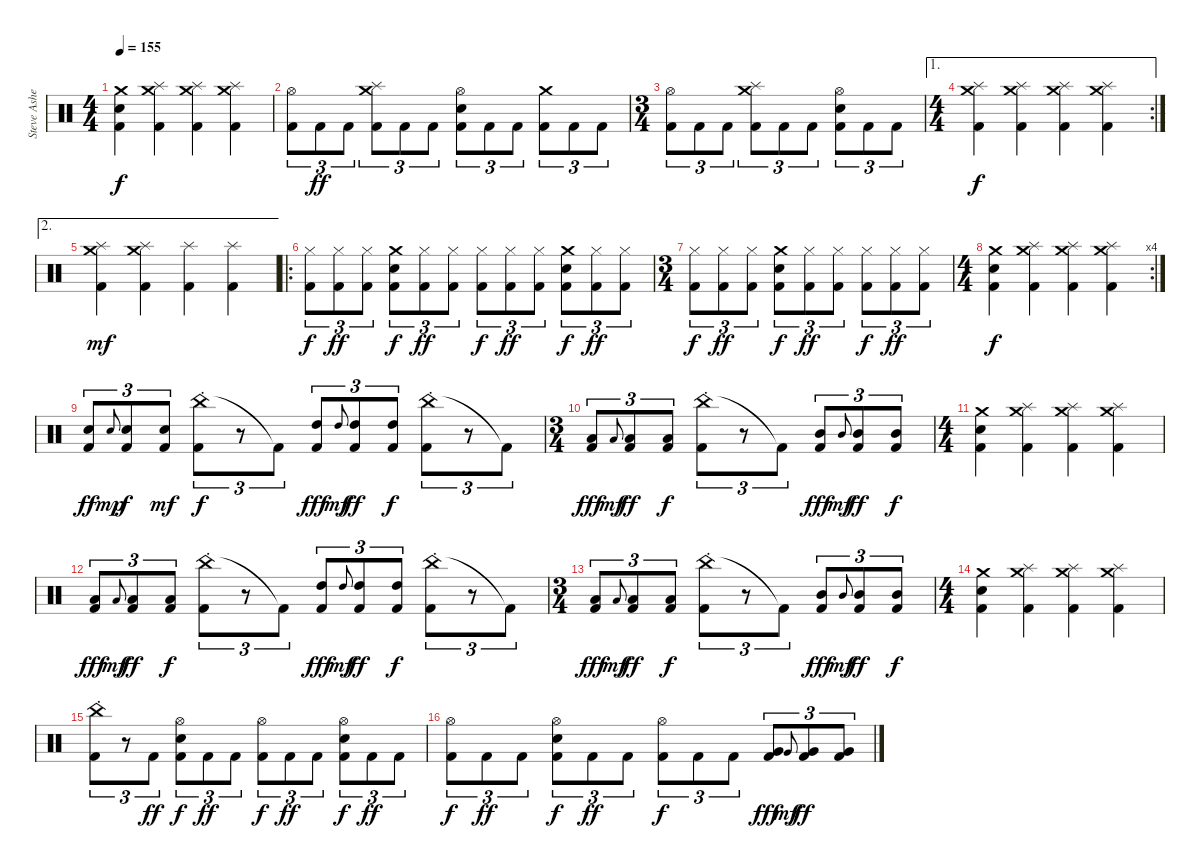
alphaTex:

\track ("Steve Asheim " "Steve Ashe") {instrument percussion}
\staff {score}
\articulation defaults
\ts (4 4)
\tempo 155
\clef neutral
\ks c
("Crash medium (hit)" "Electric Snare (hit)" "Kick (hit) 2").4{dy f} ("Crash medium (hit)" "Splash (hit)" "Kick (hit) 2").4 ("Crash medium (hit)" "Splash (hit)" "Kick (hit) 2").4 ("Crash medium (hit)" "Splash (hit)" "Kick (hit) 2").4 |
("Hi-Hat (open)" "Kick (hit) 2").8{tu (3 2)} "Kick (hit) 2".8{tu (3 2) dy ff} "Kick (hit) 2".8{tu (3 2)} ("Splash (hit)" "Crash medium (hit)" "Kick (hit) 2").8{tu (3 2)} "Kick (hit) 2".8{tu (3 2)} "Kick (hit) 2".8{tu (3 2)} ("Electric Snare (hit)" "Hi-Hat (open)" "Kick (hit) 2").8{tu (3 2)} "Kick (hit) 2".8{tu (3 2)} "Kick (hit) 2".8{tu (3 2)} ("Crash medium (hit)" "Kick (hit) 2").8{tu (3 2)} "Kick (hit) 2".8{tu (3 2)} "Kick (hit) 2".8{tu (3 2)} |
\ts (3 4)
("Hi-Hat (open)" "Kick (hit) 2").8{tu (3 2)} "Kick (hit) 2".8{tu (3 2)} "Kick (hit) 2".8{tu (3 2)} ("Splash (hit)" "Crash medium (hit)" "Kick (hit) 2").8{tu (3 2)} "Kick (hit) 2".8{tu (3 2)} "Kick (hit) 2".8{tu (3 2)} ("Electric Snare (hit)" "Hi-Hat (open)" "Kick (hit) 2").8{tu (3 2)} "Kick (hit) 2".8{tu (3 2)} "Kick (hit) 2".8{tu (3 2)} |
\ae 1
\rc 2
\ts (4 4)
("Crash medium (hit)" "Splash (hit)" "Kick (hit) 2").4{dy f} ("Crash medium (hit)" "Splash (hit)" "Kick (hit) 2").4 ("Crash medium (hit)" "Splash (hit)" "Kick (hit) 2").4 ("Crash medium (hit)" "Splash (hit)" "Kick (hit) 2").4 |
\ae 2
("Crash medium (hit)" "Splash (hit)" "Kick (hit) 2").4{dy mf} ("Crash medium (hit)" "Splash (hit)" "Kick (hit) 2").4 ("Splash (hit)" "Kick (hit) 2").4 ("Splash (hit)" "Kick (hit) 2").4 |
\ro
("Hi-Hat (closed)" "Kick (hit) 2").8{tu (3 2) dy f} ("Hi-Hat (closed)" "Kick (hit) 2").8{tu (3 2) dy ff} ("Hi-Hat (closed)" "Kick (hit) 2").8{tu (3 2)} ("Electric Snare (hit)" "Crash medium (hit)" "Kick (hit) 2").8{tu (3 2) dy f} ("Hi-Hat (closed)" "Kick (hit) 2").8{tu (3 2) dy ff} ("Hi-Hat (closed)" "Kick (hit) 2").8{tu (3 2)} ("Hi-Hat (closed)" "Kick (hit) 2").8{tu (3 2) dy f} ("Hi-Hat (closed)" "Kick (hit) 2").8{tu (3 2) dy ff} ("Hi-Hat (closed)" "Kick (hit) 2").8{tu (3 2)} ("Electric Snare (hit)" "Crash medium (hit)" "Kick (hit) 2").8{tu (3 2) dy f} ("Hi-Hat (closed)" "Kick (hit) 2").8{tu (3 2) dy ff} ("Hi-Hat (closed)" "Kick (hit) 2").8{tu (3 2)} |
\ts (3 4)
("Hi-Hat (closed)" "Kick (hit) 2").8{tu (3 2) dy f} ("Hi-Hat (closed)" "Kick (hit) 2").8{tu (3 2) dy ff} ("Hi-Hat (closed)" "Kick (hit) 2").8{tu (3 2)} ("Electric Snare (hit)" "Crash medium (hit)" "Kick (hit) 2").8{tu (3 2) dy f} ("Hi-Hat (closed)" "Kick (hit) 2").8{tu (3 2) dy ff} ("Hi-Hat (closed)" "Kick (hit) 2").8{tu (3 2)} ("Hi-Hat (closed)" "Kick (hit) 2").8{tu (3 2) dy f} ("Hi-Hat (closed)" "Kick (hit) 2").8{tu (3 2) dy ff} ("Hi-Hat (closed)" "Kick (hit) 2").8{tu (3 2)} |
\rc 4
\ts (4 4)
("Crash medium (hit)" "Electric Snare (hit)" "Kick (hit) 2").4{dy f} ("Crash medium (hit)" "Splash (hit)" "Kick (hit) 2").4 ("Crash medium (hit)" "Splash (hit)" "Kick (hit) 2").4 ("Crash medium (hit)" "Splash (hit)" "Kick (hit) 2").4 |
("Electric Snare (hit)" "Kick (hit) 2").8{tu (3 2) dy ff} "Electric Snare (hit)".8{gr onbeat dy mp} ("Electric Snare (hit)" "Kick (hit) 2").8{tu (3 2) dy f} ("Electric Snare (hit)" "Kick (hit) 2").8{tu (3 2) dy mf} ("China (hit)"{st} "Kick (hit) 2").8{tu (3 2) dy f} r.8{tu (3 2)} "Kick (hit) 2"{t}.8{tu (3 2)} ("High Tom (hit)" "Kick (hit) 2").8{tu (3 2) dy fff} "High Tom (hit)".8{gr onbeat dy mf} ("High Tom (hit)" "Kick (hit) 2").8{tu (3 2) dy ff} ("High Tom (hit)" "Kick (hit) 2").8{tu (3 2) dy f} ("China (hit)"{st} "Kick (hit) 2").8{tu (3 2)} r.8{tu (3 2)} "Kick (hit) 2"{t}.8{tu (3 2)} |
\ts (3 4)
("Low Floor Tom (hit)" "Kick (hit) 2").8{tu (3 2) dy fff} "Low Floor Tom (hit)".8{gr onbeat dy mf} ("Low Floor Tom (hit)" "Kick (hit) 2").8{tu (3 2) dy ff} ("Low Floor Tom (hit)" "Kick (hit) 2").8{tu (3 2) dy f} ("China (hit)"{st} "Kick (hit) 2").8{tu (3 2)} r.8{tu (3 2)} "Kick (hit) 2"{t}.8{tu (3 2)} ("Mid Tom (hit)" "Kick (hit) 2").8{tu (3 2) dy fff} "Mid Tom (hit)".8{gr onbeat dy mf} ("Mid Tom (hit)" "Kick (hit) 2").8{tu (3 2) dy ff} ("Mid Tom (hit)" "Kick (hit) 2").8{tu (3 2) dy f} |
\ts (4 4)
("Crash medium (hit)" "Electric Snare (hit)" "Kick (hit) 2").4 ("Crash medium (hit)" "Splash (hit)" "Kick (hit) 2").4 ("Crash medium (hit)" "Splash (hit)" "Kick (hit) 2").4 ("Crash medium (hit)" "Splash (hit)" "Kick (hit) 2").4 |
("Low Floor Tom (hit)" "Kick (hit) 2").8{tu (3 2) dy fff} "Low Floor Tom (hit)".8{gr onbeat dy mf} ("Low Floor Tom (hit)" "Kick (hit) 2").8{tu (3 2) dy ff} ("Low Floor Tom (hit)" "Kick (hit) 2").8{tu (3 2) dy f} ("China (hit)"{st} "Kick (hit) 2").8{tu (3 2)} r.8{tu (3 2)} "Kick (hit) 2"{t}.8{tu (3 2)} ("High Tom (hit)" "Kick (hit) 2").8{tu (3 2) dy fff} "High Tom (hit)".8{gr onbeat dy mf} ("High Tom (hit)" "Kick (hit) 2").8{tu (3 2) dy ff} ("High Tom (hit)" "Kick (hit) 2").8{tu (3 2) dy f} ("China (hit)"{st} "Kick (hit) 2").8{tu (3 2)} r.8{tu (3 2)} "Kick (hit) 2"{t}.8{tu (3 2)} |
\ts (3 4)
("Low Floor Tom (hit)" "Kick (hit) 2").8{tu (3 2) dy fff} "Low Floor Tom (hit)".8{gr onbeat dy mf} ("Low Floor Tom (hit)" "Kick (hit) 2").8{tu (3 2) dy ff} ("Low Floor Tom (hit)" "Kick (hit) 2").8{tu (3 2) dy f} ("China (hit)"{st} "Kick (hit) 2").8{tu (3 2)} r.8{tu (3 2)} "Kick (hit) 2"{t}.8{tu (3 2)} ("Mid Tom (hit)" "Kick (hit) 2").8{tu (3 2) dy fff} "Mid Tom (hit)".8{gr onbeat dy mf} ("Mid Tom (hit)" "Kick (hit) 2").8{tu (3 2) dy ff} ("Mid Tom (hit)" "Kick (hit) 2").8{tu (3 2) dy f} |
\ts (4 4)
("Crash medium (hit)" "Electric Snare (hit)" "Kick (hit) 2").4 ("Crash medium (hit)" "Splash (hit)" "Kick (hit) 2").4 ("Crash medium (hit)" "Splash (hit)" "Kick (hit) 2").4 ("Crash medium (hit)" "Splash (hit)" "Kick (hit) 2").4 |
("China (hit)"{st} "Kick (hit) 2").8{tu (3 2)} r.8{tu (3 2)} "Kick (hit) 2".8{tu (3 2) dy ff} ("Electric Snare (hit)" "Hi-Hat (open)" "Kick (hit) 2").8{tu (3 2) dy f} "Kick (hit) 2".8{tu (3 2) dy ff} "Kick (hit) 2".8{tu (3 2)} ("Hi-Hat (open)" "Kick (hit) 2").8{tu (3 2) dy f} "Kick (hit) 2".8{tu (3 2) dy ff} "Kick (hit) 2".8{tu (3 2)} ("Electric Snare (hit)" "Hi-Hat (open)" "Kick (hit) 2").8{tu (3 2) dy f} "Kick (hit) 2".8{tu (3 2) dy ff} "Kick (hit) 2".8{tu (3 2)} |
("Hi-Hat (open)" "Kick (hit) 2").8{tu (3 2) dy f} "Kick (hit) 2".8{tu (3 2) dy ff} "Kick (hit) 2".8{tu (3 2)} ("Electric Snare (hit)" "Hi-Hat (open)" "Kick (hit) 2").8{tu (3 2) dy f} "Kick (hit) 2".8{tu (3 2) dy ff} "Kick (hit) 2".8{tu (3 2)} ("Hi-Hat (open)" "Kick (hit) 2").8{tu (3 2) dy f} "Kick (hit) 2".8{tu (3 2)} "Kick (hit) 2".8{tu (3 2)} ("Very Low Tom (hit)" "Kick (hit) 2").8{tu (3 2) dy fff} "Very Low Tom (hit)".8{gr onbeat dy mf} ("Very Low Tom (hit)" "Kick (hit) 2").8{tu (3 2) dy ff} ("Very Low Tom (hit)" "Kick (hit) 2").8{tu (3 2)}
